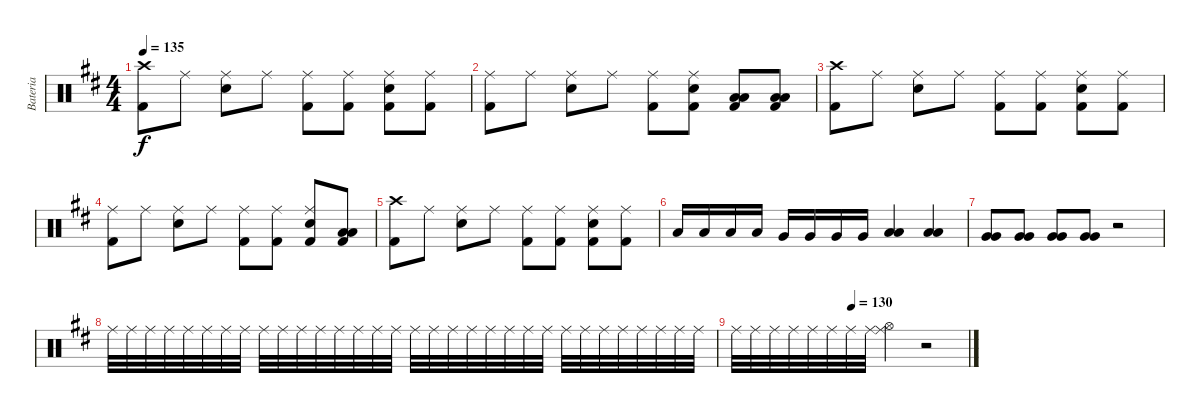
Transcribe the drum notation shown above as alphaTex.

\track ("Bateria" "Bateria") {instrument percussion}
\staff {score}
\articulation defaults
\ts (4 4)
\tempo 135
\clef neutral
\ks d
("Crash high (hit)" "Kick (hit) 2").8{dy f} "Ride (middle)".8 ("Ride (middle)" "Snare (hit) 2").8 "Ride (middle)".8 ("Ride (middle)" "Kick (hit) 2").8 ("Ride (middle)" "Kick (hit) 2").8 ("Ride (middle)" "Snare (hit) 2" "Kick (hit) 2").8 ("Ride (middle)" "Kick (hit) 2").8 |
("Ride (middle)" "Kick (hit) 2").8 "Ride (middle)".8 ("Ride (middle)" "Snare (hit) 2").8 "Ride (middle)".8 ("Ride (middle)" "Kick (hit) 2").8 ("Ride (middle)" "Snare (hit) 2" "Kick (hit) 2").8 ("Low Tom (hit)" "Low Tom (hit)" "Kick (hit) 2").8 ("Low Tom (hit)" "Low Tom (hit)" "Kick (hit) 2").8 |
("Crash high (hit)" "Kick (hit) 2").8 "Ride (middle)".8 ("Ride (middle)" "Snare (hit) 2").8 "Ride (middle)".8 ("Ride (middle)" "Kick (hit) 2").8 ("Ride (middle)" "Kick (hit) 2").8 ("Ride (middle)" "Snare (hit) 2" "Kick (hit) 2").8 ("Ride (middle)" "Kick (hit) 2").8 |
("Ride (middle)" "Kick (hit) 2").8 "Ride (middle)".8 ("Ride (middle)" "Snare (hit) 2").8 "Ride (middle)".8 ("Ride (middle)" "Kick (hit) 2").8 ("Ride (middle)" "Kick (hit) 2").8 ("Ride (middle)" "Snare (hit) 2" "Kick (hit) 2").8 ("Low Tom (hit)" "Low Tom (hit)" "Kick (hit) 2").8 |
("Crash high (hit)" "Kick (hit) 2").8 "Ride (middle)".8 ("Ride (middle)" "Snare (hit) 2").8 "Ride (middle)".8 ("Ride (middle)" "Kick (hit) 2").8 ("Ride (middle)" "Kick (hit) 2").8 ("Ride (middle)" "Snare (hit) 2" "Kick (hit) 2").8 ("Ride (middle)" "Kick (hit) 2").8 |
"Low Tom (hit)".16 "Low Tom (hit)".16 "Low Tom (hit)".16 "Low Tom (hit)".16 "Very Low Tom (hit)".16 "Very Low Tom (hit)".16 "Very Low Tom (hit)".16 "Very Low Tom (hit)".16 ("Low Tom (hit)" "Low Tom (hit)").4 ("Low Tom (hit)" "Low Tom (hit)").4 |
("Very Low Tom (hit)" "Very Low Tom (hit)").8 ("Very Low Tom (hit)" "Very Low Tom (hit)").8 ("Very Low Tom (hit)" "Very Low Tom (hit)").8 ("Very Low Tom (hit)" "Very Low Tom (hit)").8 r.2 |
"Ride (middle)".32{volume 0} "Ride (middle)".32{volume 9} "Ride (middle)".32 "Ride (middle)".32 "Ride (middle)".32 "Ride (middle)".32 "Ride (middle)".32 "Ride (middle)".32 "Ride (middle)".32 "Ride (middle)".32 "Ride (middle)".32 "Ride (middle)".32 "Ride (middle)".32 "Ride (middle)".32 "Ride (middle)".32 "Ride (middle)".32 "Ride (middle)".32 "Ride (middle)".32 "Ride (middle)".32 "Ride (middle)".32 "Ride (middle)".32 "Ride (middle)".32 "Ride (middle)".32 "Ride (middle)".32 "Ride (middle)".32 "Ride (middle)".32 "Ride (middle)".32 "Ride (middle)".32 "Ride (middle)".32 "Ride (middle)".32 "Ride (middle)".32 "Ride (middle)".32 |
\tempo (130 0.5)
"Ride (middle)".32 "Ride (middle)".32 "Ride (middle)".32 "Ride (middle)".32 "Ride (middle)".32 "Ride (middle)".32 "Ride (middle)".32 "Ride (middle)".32 ("Ride (middle)" "Hi-Hat (open)").4 r.2
